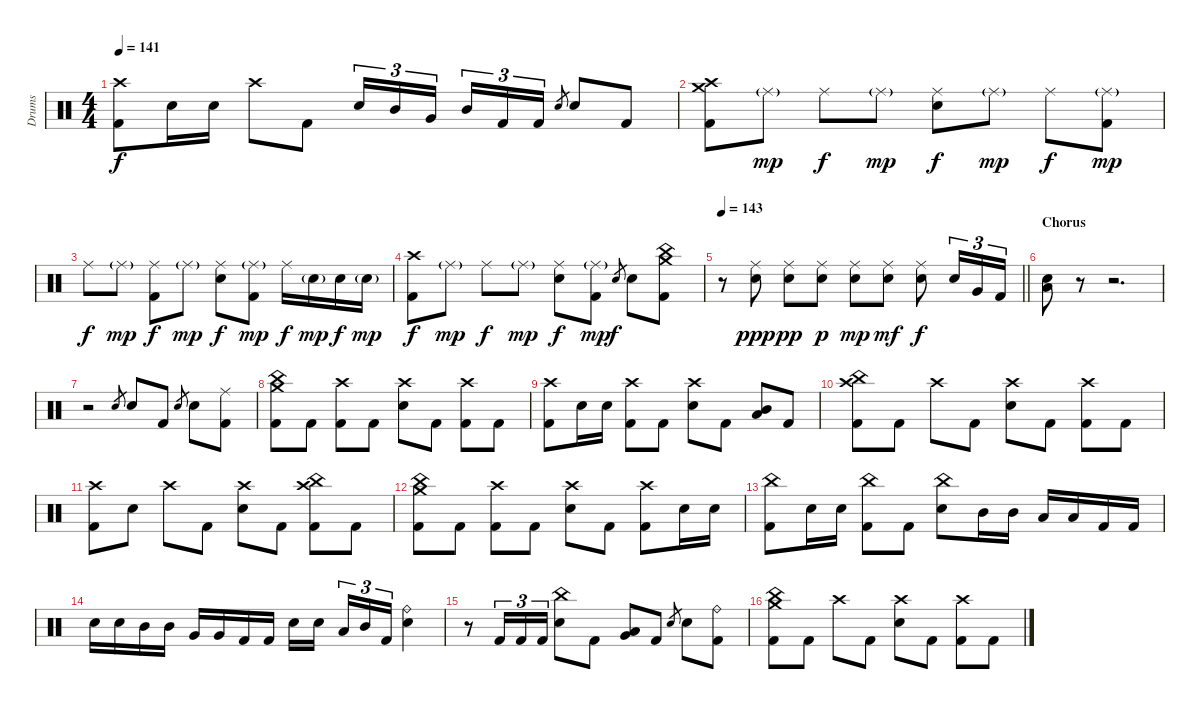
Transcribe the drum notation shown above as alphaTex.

\track ("Drums" "Drums") {instrument percussion}
\staff {score}
\articulation defaults
\ts (4 4)
\tempo 141
\clef neutral
\ks c
("Crash high (hit)" "Kick (hit) 2").8{dy f} "Electric Snare (hit)".16 "Electric Snare (hit)".16 "Crash high (hit)".8 "Kick (hit) 2".8 "Electric Snare (hit)".16{tu (3 2)} "Mid Tom (hit)".16{tu (3 2)} "Very Low Tom (hit)".16{tu (3 2)} "Mid Tom (hit)".16{tu (3 2)} "Kick (hit) 2".16{tu (3 2)} "Kick (hit) 2".16{tu (3 2)} "Electric Snare (hit)".8{gr} "Electric Snare (hit)".8 "Kick (hit) 2".8 |
("Crash high (hit)" "Crash medium (hit)" "Kick (hit) 2").8 "Ride (middle)"{g}.8{dy mp} "Ride (middle)".8{dy f} "Ride (middle)"{g}.8{dy mp} ("Ride (middle)" "Electric Snare (hit)").8{dy f} "Ride (middle)"{g}.8{dy mp} "Ride (middle)".8{dy f} ("Ride (middle)"{g} "Kick (hit) 2").8{dy mp} |
"Ride (middle)".8{dy f} "Ride (middle)"{g}.8{dy mp} ("Ride (middle)" "Kick (hit) 2").8{dy f} "Ride (middle)"{g}.8{dy mp} ("Ride (middle)" "Electric Snare (hit)").8{dy f} ("Ride (middle)"{g} "Kick (hit) 2").8{dy mp} "Ride (middle)".16{dy f} "Electric Snare (hit)"{g}.16{dy mp} "Electric Snare (hit)".16{dy f} "Electric Snare (hit)"{g}.16{dy mp} |
("Crash high (hit)" "Kick (hit) 2").8{dy f} "Ride (middle)"{g}.8{dy mp} "Ride (middle)".8{dy f} "Ride (middle)"{g}.8{dy mp} ("Ride (middle)" "Electric Snare (hit)").8{dy f} ("Ride (middle)"{g} "Kick (hit) 2").8{dy mp} "Electric Snare (hit)".8{gr dy f} "Electric Snare (hit)".8 ("Crash medium (hit)" "China (hit)" "Kick (hit) 2").8 |
\tempo 143
\barLineRight lightlight
r.8 ("Ride (middle)" "Electric Snare (hit)").8{dy ppp} ("Ride (middle)" "Electric Snare (hit)").8{dy pp} ("Ride (middle)" "Electric Snare (hit)").8{dy p} ("Ride (middle)" "Electric Snare (hit)").8{dy mp} ("Ride (middle)" "Electric Snare (hit)").8{dy mf} ("Ride (middle)" "Electric Snare (hit)").8{dy f} "Electric Snare (hit)".16{tu (3 2)} "Very Low Tom (hit)".16{tu (3 2)} "Kick (hit) 2".16{tu (3 2)} |
\section ("" "Chorus")
("Low Floor Tom (hit)" "Electric Snare (hit)").8 r.8 r.2{d} |
r.2 "Electric Snare (hit)".8{gr} "Electric Snare (hit)".8 "Kick (hit) 2".8 "Electric Snare (hit)".8{gr} "Electric Snare (hit)".8 ("Ride (middle)" "Kick (hit) 2").8 |
("Crash medium (hit)" "China (hit)" "Kick (hit) 2").8 "Kick (hit) 2".8 ("Crash high (hit)" "Kick (hit) 2").8 "Kick (hit) 2".8 ("Crash high (hit)" "Electric Snare (hit)").8 "Kick (hit) 2".8 ("Crash high (hit)" "Kick (hit) 2").8 "Kick (hit) 2".8 |
("Crash high (hit)" "Kick (hit) 2").8 "Electric Snare (hit)".16 "Electric Snare (hit)".16 ("Crash high (hit)" "Kick (hit) 2").8 "Kick (hit) 2".8 ("Crash high (hit)" "Electric Snare (hit)").8 "Kick (hit) 2".8 ("Mid Tom (hit)" "Low Floor Tom (hit)").8{bu 60} "Kick (hit) 2".8 |
("Crash high (hit)" "China (hit)" "Kick (hit) 2").8 "Kick (hit) 2".8 "Crash high (hit)".8 "Kick (hit) 2".8 ("Crash high (hit)" "Electric Snare (hit)").8 "Kick (hit) 2".8 ("Crash high (hit)" "Kick (hit) 2").8 "Kick (hit) 2".8 |
("Crash high (hit)" "Kick (hit) 2").8 "Electric Snare (hit)".8 "Crash high (hit)".8 "Kick (hit) 2".8 ("Crash high (hit)" "Electric Snare (hit)").8 "Kick (hit) 2".8 ("Crash high (hit)" "China (hit)" "Kick (hit) 2").8 "Kick (hit) 2".8 |
("Crash medium (hit)" "China (hit)" "Kick (hit) 2").8 "Kick (hit) 2".8 ("Crash high (hit)" "Kick (hit) 2").8 "Kick (hit) 2".8 ("Crash high (hit)" "Electric Snare (hit)").8 "Kick (hit) 2".8 ("Crash high (hit)" "Kick (hit) 2").8 "Electric Snare (hit)".16 "Electric Snare (hit)".16 |
("China (hit)" "Kick (hit) 2").8 "Electric Snare (hit)".16 "Electric Snare (hit)".16 ("China (hit)" "Kick (hit) 2").8 "Kick (hit) 2".8 ("China (hit)" "Electric Snare (hit)").8 "Mid Tom (hit)".16 "Mid Tom (hit)".16 "Low Floor Tom (hit)".16 "Low Floor Tom (hit)".16 "Kick (hit) 2".16 "Kick (hit) 2".16 |
"Electric Snare (hit)".16 "Electric Snare (hit)".16 "Mid Tom (hit)".16 "Mid Tom (hit)".16 "Very Low Tom (hit)".16 "Very Low Tom (hit)".16 "Kick (hit) 2".16 "Kick (hit) 2".16 "Electric Snare (hit)".16 "Electric Snare (hit)".16 "Low Floor Tom (hit)".16{tu (3 2)} "Mid Tom (hit)".16{tu (3 2)} "Kick (hit) 2".16{tu (3 2)} ("Ride (bell)" "Electric Snare (hit)").4 |
r.8 "Kick (hit) 2".16{tu (3 2)} "Kick (hit) 2".16{tu (3 2)} "Kick (hit) 2".16{tu (3 2)} ("China (hit)" "Electric Snare (hit)").8 "Kick (hit) 2".8 ("Very Low Tom (hit)" "Low Floor Tom (hit)").8{bu 60} "Kick (hit) 2".8 "Electric Snare (hit)".8{gr} "Electric Snare (hit)".8 ("Ride (bell)" "Kick (hit) 2").8 |
("Crash medium (hit)" "China (hit)" "Kick (hit) 2").8 "Kick (hit) 2".8 "Crash high (hit)".8 "Kick (hit) 2".8 ("Crash high (hit)" "Electric Snare (hit)").8 "Kick (hit) 2".8 ("Crash high (hit)" "Kick (hit) 2").8 "Kick (hit) 2".8
